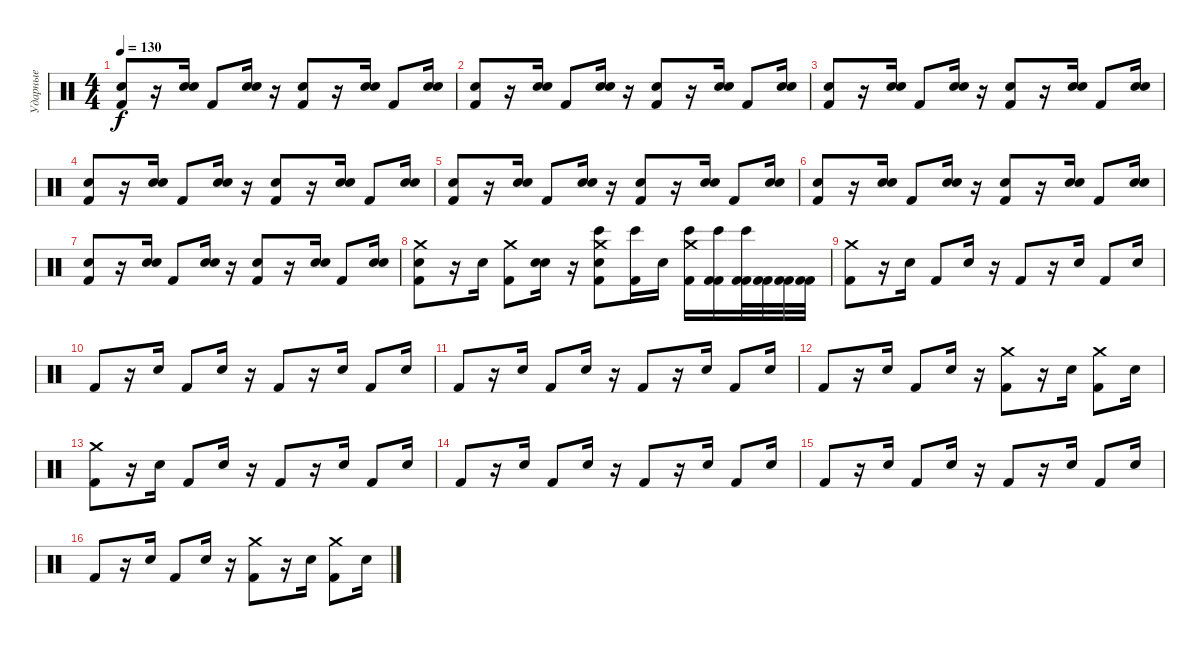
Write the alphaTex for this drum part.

\track ("Ударные" "Ударные") {instrument percussion}
\staff {score}
\articulation defaults
\ts (4 4)
\tempo 130
\clef neutral
\ks c
("Kick (hit) 2" "Hand Clap (hit)").8{dy f} r.16 ("Electric Snare (hit)" "Hand Clap (hit)").16 "Kick (hit) 2".8 ("Electric Snare (hit)" "Hand Clap (hit)").16 r.16 ("Kick (hit) 2" "Hand Clap (hit)").8 r.16 ("Electric Snare (hit)" "Hand Clap (hit)").16 "Kick (hit) 2".8 ("Electric Snare (hit)" "Hand Clap (hit)").16 |
("Kick (hit) 2" "Hand Clap (hit)").8 r.16 ("Electric Snare (hit)" "Hand Clap (hit)").16 "Kick (hit) 2".8 ("Electric Snare (hit)" "Hand Clap (hit)").16 r.16 ("Kick (hit) 2" "Hand Clap (hit)").8 r.16 ("Electric Snare (hit)" "Hand Clap (hit)").16 "Kick (hit) 2".8 ("Electric Snare (hit)" "Hand Clap (hit)").16 |
("Kick (hit) 2" "Hand Clap (hit)").8 r.16 ("Electric Snare (hit)" "Hand Clap (hit)").16 "Kick (hit) 2".8 ("Electric Snare (hit)" "Hand Clap (hit)").16 r.16 ("Kick (hit) 2" "Hand Clap (hit)").8 r.16 ("Electric Snare (hit)" "Hand Clap (hit)").16 "Kick (hit) 2".8 ("Electric Snare (hit)" "Hand Clap (hit)").16 |
("Kick (hit) 2" "Hand Clap (hit)").8 r.16 ("Electric Snare (hit)" "Hand Clap (hit)").16 "Kick (hit) 2".8 ("Electric Snare (hit)" "Hand Clap (hit)").16 r.16 ("Kick (hit) 2" "Hand Clap (hit)").8 r.16 ("Electric Snare (hit)" "Hand Clap (hit)").16 "Kick (hit) 2".8 ("Electric Snare (hit)" "Hand Clap (hit)").16 |
("Kick (hit) 2" "Hand Clap (hit)").8 r.16 ("Electric Snare (hit)" "Hand Clap (hit)").16 "Kick (hit) 2".8 ("Electric Snare (hit)" "Hand Clap (hit)").16 r.16 ("Kick (hit) 2" "Hand Clap (hit)").8 r.16 ("Electric Snare (hit)" "Hand Clap (hit)").16 "Kick (hit) 2".8 ("Electric Snare (hit)" "Hand Clap (hit)").16 |
("Kick (hit) 2" "Hand Clap (hit)").8 r.16 ("Electric Snare (hit)" "Hand Clap (hit)").16 "Kick (hit) 2".8 ("Electric Snare (hit)" "Hand Clap (hit)").16 r.16 ("Kick (hit) 2" "Hand Clap (hit)").8 r.16 ("Electric Snare (hit)" "Hand Clap (hit)").16 "Kick (hit) 2".8 ("Electric Snare (hit)" "Hand Clap (hit)").16 |
("Kick (hit) 2" "Hand Clap (hit)").8 r.16 ("Electric Snare (hit)" "Hand Clap (hit)").16 "Kick (hit) 2".8 ("Electric Snare (hit)" "Hand Clap (hit)").16 r.16 ("Kick (hit) 2" "Hand Clap (hit)").8 r.16 ("Electric Snare (hit)" "Hand Clap (hit)").16 "Kick (hit) 2".8 ("Electric Snare (hit)" "Hand Clap (hit)").16 |
("Kick (hit) 2" "Hand Clap (hit)" "Crash medium (hit)").8 r.16 "Hand Clap (hit)".16 ("Kick (hit) 2" "Crash medium (hit)").8 ("Electric Snare (hit)" "Hand Clap (hit)").16 r.16 ("Kick (hit) 2" "Hand Clap (hit)" "Bongo High (hit)" "Crash medium (hit)").8 ("Kick (hit) 2" "Bongo High (hit)").16 "Hand Clap (hit)".16 ("Kick (hit) 2" "Bongo High (hit)" "Crash medium (hit)").16 ("Kick (hit) 2" "Bongo High (hit)" "Kick (hit) 2").16 ("Kick (hit) 2" "Bongo High (hit)" "Kick (hit) 2").32 ("Kick (hit) 2" "Kick (hit) 2").32 ("Kick (hit) 2" "Kick (hit) 2").32 ("Kick (hit) 2" "Kick (hit) 2").32 |
("Kick (hit) 2" "Crash medium (hit)").8 r.16 "Electric Snare (hit)".16 "Kick (hit) 2".8 "Electric Snare (hit)".16 r.16 "Kick (hit) 2".8 r.16 "Electric Snare (hit)".16 "Kick (hit) 2".8 "Electric Snare (hit)".16 |
"Kick (hit) 2".8 r.16 "Electric Snare (hit)".16 "Kick (hit) 2".8 "Electric Snare (hit)".16 r.16 "Kick (hit) 2".8 r.16 "Electric Snare (hit)".16 "Kick (hit) 2".8 "Electric Snare (hit)".16 |
"Kick (hit) 2".8 r.16 "Electric Snare (hit)".16 "Kick (hit) 2".8 "Electric Snare (hit)".16 r.16 "Kick (hit) 2".8 r.16 "Electric Snare (hit)".16 "Kick (hit) 2".8 "Electric Snare (hit)".16 |
"Kick (hit) 2".8 r.16 "Electric Snare (hit)".16 "Kick (hit) 2".8 "Electric Snare (hit)".16 r.16 ("Kick (hit) 2" "Crash medium (hit)").8 r.16 "Electric Snare (hit)".16 ("Kick (hit) 2" "Crash medium (hit)").8 "Electric Snare (hit)".16 |
("Kick (hit) 2" "Crash medium (hit)").8 r.16 "Electric Snare (hit)".16 "Kick (hit) 2".8 "Electric Snare (hit)".16 r.16 "Kick (hit) 2".8 r.16 "Electric Snare (hit)".16 "Kick (hit) 2".8 "Electric Snare (hit)".16 |
"Kick (hit) 2".8 r.16 "Electric Snare (hit)".16 "Kick (hit) 2".8 "Electric Snare (hit)".16 r.16 "Kick (hit) 2".8 r.16 "Electric Snare (hit)".16 "Kick (hit) 2".8 "Electric Snare (hit)".16 |
"Kick (hit) 2".8 r.16 "Electric Snare (hit)".16 "Kick (hit) 2".8 "Electric Snare (hit)".16 r.16 "Kick (hit) 2".8 r.16 "Electric Snare (hit)".16 "Kick (hit) 2".8 "Electric Snare (hit)".16 |
"Kick (hit) 2".8 r.16 "Electric Snare (hit)".16 "Kick (hit) 2".8 "Electric Snare (hit)".16 r.16 ("Kick (hit) 2" "Crash medium (hit)").8 r.16 "Electric Snare (hit)".16 ("Kick (hit) 2" "Crash medium (hit)").8 "Electric Snare (hit)".16
